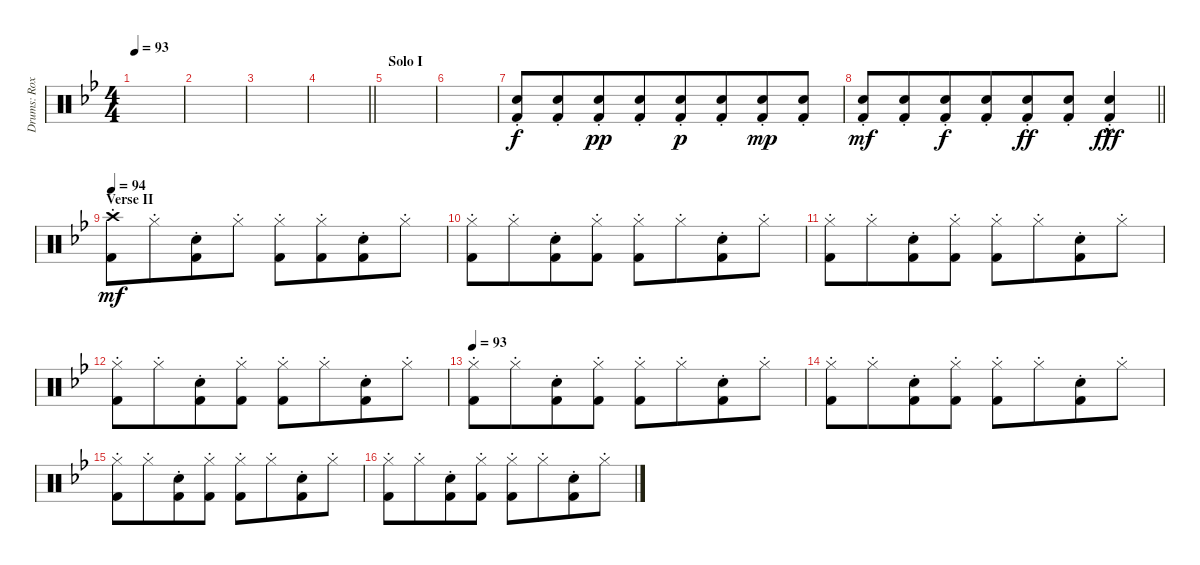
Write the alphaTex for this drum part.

\track ("Drums: Roxy" "Drums: Rox") {instrument percussion}
\staff {score}
\articulation defaults
\ts (4 4)
\tempo 93
\clef neutral
\ks bb
|
|
|
\barLineRight lightlight
|
\section ("" "Solo I")
|
|
("Snare (hit) 2"{st} "Kick (hit) 2"{st}).8{beam merge} ("Snare (hit) 2"{st} "Kick (hit) 2"{st}).8{beam merge} ("Snare (hit) 2"{st} "Kick (hit) 2"{st}).8{dy pp beam merge} ("Snare (hit) 2"{st} "Kick (hit) 2"{st}).8{beam merge} ("Snare (hit) 2"{st} "Kick (hit) 2"{st}).8{dy p beam merge} ("Snare (hit) 2"{st} "Kick (hit) 2"{st}).8{beam merge} ("Snare (hit) 2"{st} "Kick (hit) 2"{st}).8{dy mp beam merge} ("Snare (hit) 2"{st} "Kick (hit) 2"{st}).8 |
\barLineRight lightlight
("Snare (hit) 2"{st} "Kick (hit) 2"{st}).8{dy mf beam merge} ("Snare (hit) 2"{st} "Kick (hit) 2"{st}).8{beam merge} ("Snare (hit) 2"{st} "Kick (hit) 2"{st}).8{dy f beam merge} ("Snare (hit) 2"{st} "Kick (hit) 2"{st}).8{beam merge} ("Snare (hit) 2"{st} "Kick (hit) 2"{st}).8{dy ff beam merge} ("Snare (hit) 2"{st} "Kick (hit) 2"{st}).8{beam merge} ("Snare (hit) 2"{hac st} "Kick (hit) 2"{hac st}).4{dy fff} |
\section ("" "Verse II")
\tempo 94
("Crash high (hit)"{st} "Kick (hit) 2"{st}).8{dy mf} "Hi-Hat (closed)"{st}.8{beam merge} ("Snare (hit) 2"{st} "Kick (hit) 2"{st}).8 "Hi-Hat (closed)"{st}.8{beam split} ("Hi-Hat (closed)"{st} "Kick (hit) 2"{st}).8 ("Hi-Hat (closed)"{st} "Kick (hit) 2"{st}).8{beam merge} ("Snare (hit) 2"{st} "Kick (hit) 2"{st}).8 "Hi-Hat (closed)"{st}.8 |
("Hi-Hat (closed)"{st} "Kick (hit) 2"{st}).8 "Hi-Hat (closed)"{st}.8{beam merge} ("Snare (hit) 2"{st} "Kick (hit) 2"{st}).8 ("Hi-Hat (closed)"{st} "Kick (hit) 2"{st}).8{beam split} ("Hi-Hat (closed)"{st} "Kick (hit) 2"{st}).8 "Hi-Hat (closed)"{st}.8{beam merge} ("Snare (hit) 2"{st} "Kick (hit) 2"{st}).8 "Hi-Hat (closed)"{st}.8 |
("Hi-Hat (closed)"{st} "Kick (hit) 2"{st}).8 "Hi-Hat (closed)"{st}.8{beam merge} ("Snare (hit) 2"{st} "Kick (hit) 2"{st}).8 ("Hi-Hat (closed)"{st} "Kick (hit) 2"{st}).8{beam split} ("Hi-Hat (closed)"{st} "Kick (hit) 2"{st}).8 "Hi-Hat (closed)"{st}.8{beam merge} ("Snare (hit) 2"{st} "Kick (hit) 2"{st}).8 "Hi-Hat (closed)"{st}.8 |
("Hi-Hat (closed)"{st} "Kick (hit) 2"{st}).8 "Hi-Hat (closed)"{st}.8{beam merge} ("Snare (hit) 2"{st} "Kick (hit) 2"{st}).8 ("Hi-Hat (closed)"{st} "Kick (hit) 2"{st}).8{beam split} ("Hi-Hat (closed)"{st} "Kick (hit) 2"{st}).8 "Hi-Hat (closed)"{st}.8{beam merge} ("Snare (hit) 2"{st} "Kick (hit) 2"{st}).8 "Hi-Hat (closed)"{st}.8 |
\tempo 93
("Hi-Hat (closed)"{st} "Kick (hit) 2"{st}).8 "Hi-Hat (closed)"{st}.8{beam merge} ("Snare (hit) 2"{st} "Kick (hit) 2"{st}).8 ("Hi-Hat (closed)"{st} "Kick (hit) 2"{st}).8{beam split} ("Hi-Hat (closed)"{st} "Kick (hit) 2"{st}).8 "Hi-Hat (closed)"{st}.8{beam merge} ("Snare (hit) 2"{st} "Kick (hit) 2"{st}).8 "Hi-Hat (closed)"{st}.8 |
("Hi-Hat (closed)"{st} "Kick (hit) 2"{st}).8 "Hi-Hat (closed)"{st}.8{beam merge} ("Snare (hit) 2"{st} "Kick (hit) 2"{st}).8 ("Hi-Hat (closed)"{st} "Kick (hit) 2"{st}).8{beam split} ("Hi-Hat (closed)"{st} "Kick (hit) 2"{st}).8 "Hi-Hat (closed)"{st}.8{beam merge} ("Snare (hit) 2"{st} "Kick (hit) 2"{st}).8 "Hi-Hat (closed)"{st}.8 |
("Hi-Hat (closed)"{st} "Kick (hit) 2"{st}).8 "Hi-Hat (closed)"{st}.8{beam merge} ("Snare (hit) 2"{st} "Kick (hit) 2"{st}).8 ("Hi-Hat (closed)"{st} "Kick (hit) 2"{st}).8{beam split} ("Hi-Hat (closed)"{st} "Kick (hit) 2"{st}).8 "Hi-Hat (closed)"{st}.8{beam merge} ("Snare (hit) 2"{st} "Kick (hit) 2"{st}).8 "Hi-Hat (closed)"{st}.8 |
("Hi-Hat (closed)"{st} "Kick (hit) 2"{st}).8 "Hi-Hat (closed)"{st}.8{beam merge} ("Snare (hit) 2"{st} "Kick (hit) 2"{st}).8 ("Hi-Hat (closed)"{st} "Kick (hit) 2"{st}).8{beam split} ("Hi-Hat (closed)"{st} "Kick (hit) 2"{st}).8 "Hi-Hat (closed)"{st}.8{beam merge} ("Snare (hit) 2"{st} "Kick (hit) 2"{st}).8 "Hi-Hat (closed)"{st}.8
